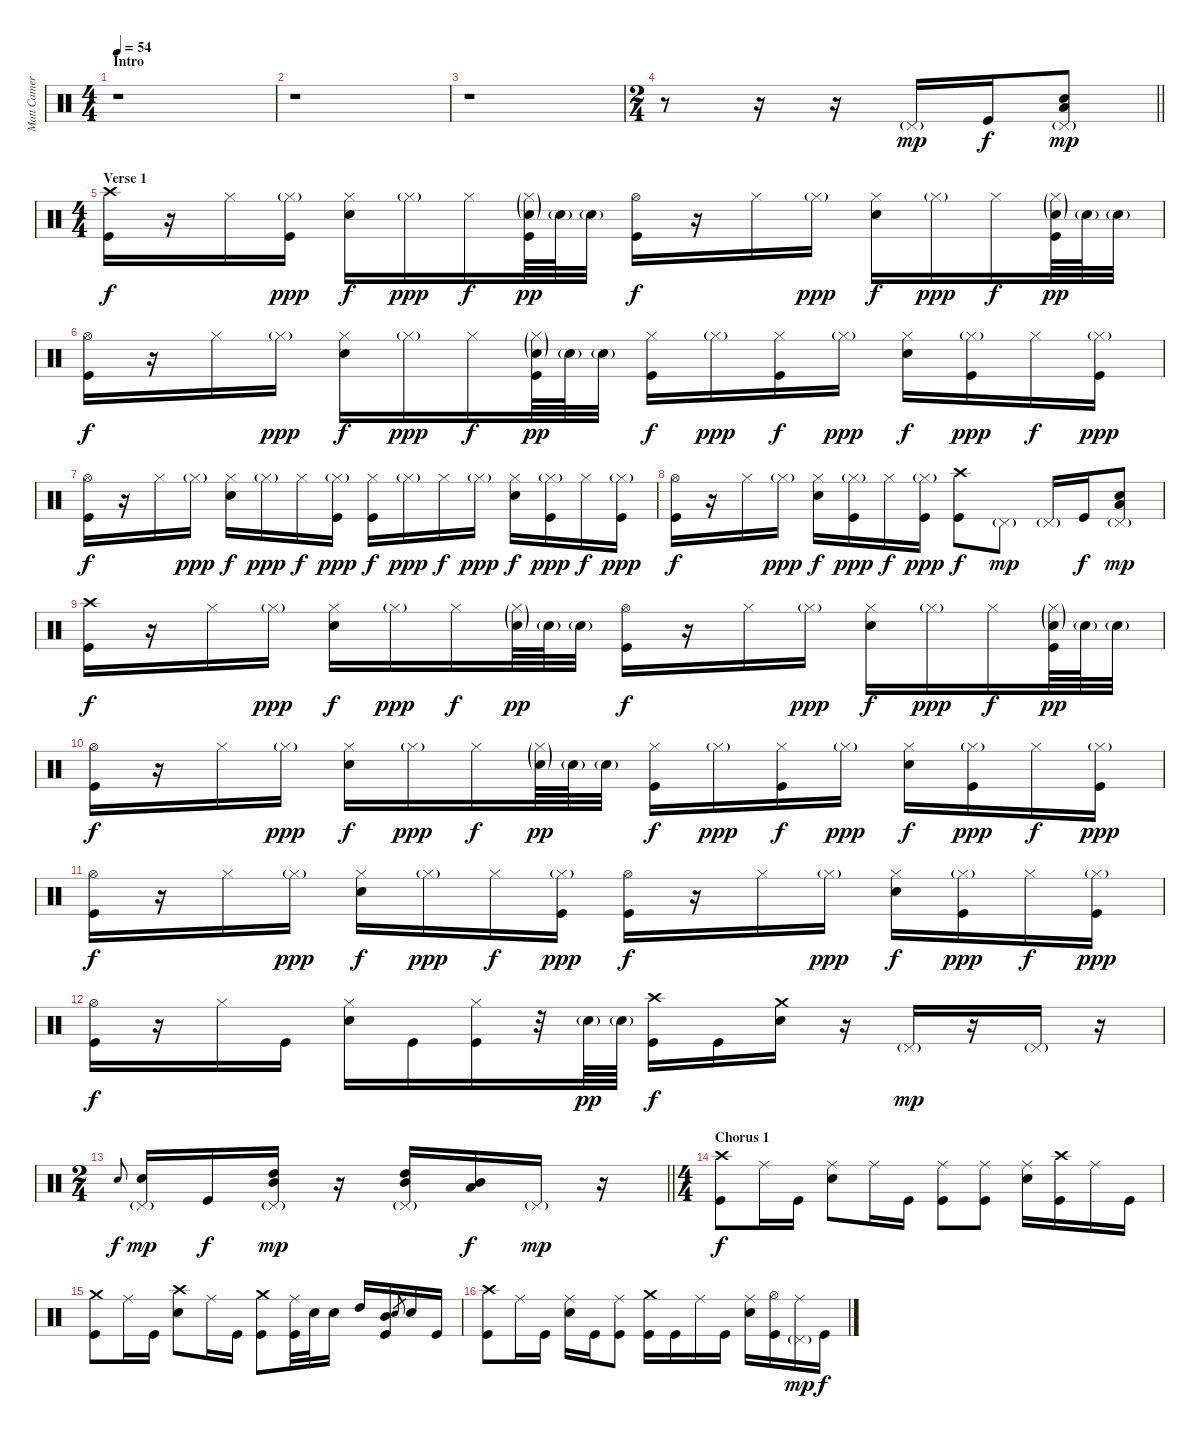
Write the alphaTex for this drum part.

\track ("Matt Cameron" "Matt Camer") {instrument percussion}
\staff {score}
\articulation defaults
\ts (4 4)
\section ("" "Intro")
\tempo 54
\clef neutral
\ks c
r.1{dy mp} |
r.1 |
r.1 |
\ts (2 4)
\barLineRight lightlight
r.8 r.16 r.16 "Pedal Hi-Hat (hit)"{g}.16 "Kick (hit)".16{dy f} ("Electric Snare (hit)" "Low Floor Tom (hit)" "Pedal Hi-Hat (hit)"{g}).8{dy mp} |
\ts (4 4)
\section ("" "Verse 1")
("Crash high (hit)" "Kick (hit)").16{dy f} r.16 "Hi-Hat (closed)".16 ("Hi-Hat (closed)"{g} "Kick (hit)").16{dy ppp} ("Hi-Hat (closed)" "Electric Snare (hit)").16{dy f} "Hi-Hat (closed)"{g}.16{dy ppp} "Hi-Hat (closed)".16{dy f} ("Hi-Hat (closed)"{g} "Electric Snare (hit)"{g} "Kick (hit)").64{dy pp} "Electric Snare (hit)"{g}.64 "Electric Snare (hit)"{g}.32 ("Hi-Hat (open)" "Kick (hit)").16{dy f} r.16 "Hi-Hat (closed)".16 "Hi-Hat (closed)"{g}.16{dy ppp} ("Hi-Hat (closed)" "Electric Snare (hit)").16{dy f} "Hi-Hat (closed)"{g}.16{dy ppp} "Hi-Hat (closed)".16{dy f} ("Hi-Hat (closed)"{g} "Electric Snare (hit)"{g} "Kick (hit)").64{dy pp} "Electric Snare (hit)"{g}.64 "Electric Snare (hit)"{g}.32 |
("Hi-Hat (open)" "Kick (hit)").16{dy f} r.16 "Hi-Hat (closed)".16 "Hi-Hat (closed)"{g}.16{dy ppp} ("Hi-Hat (closed)" "Electric Snare (hit)").16{dy f} "Hi-Hat (closed)"{g}.16{dy ppp} "Hi-Hat (closed)".16{dy f} ("Hi-Hat (closed)"{g} "Electric Snare (hit)"{g} "Kick (hit)").64{dy pp} "Electric Snare (hit)"{g}.64 "Electric Snare (hit)"{g}.32 ("Hi-Hat (closed)" "Kick (hit)").16{dy f} "Hi-Hat (closed)"{g}.16{dy ppp} ("Hi-Hat (closed)" "Kick (hit)").16{dy f} "Hi-Hat (closed)"{g}.16{dy ppp} ("Hi-Hat (closed)" "Electric Snare (hit)").16{dy f} ("Hi-Hat (closed)"{g} "Kick (hit)").16{dy ppp} "Hi-Hat (closed)".16{dy f} ("Hi-Hat (closed)"{g} "Kick (hit)").16{dy ppp} |
("Hi-Hat (open)" "Kick (hit)").16{dy f} r.16 "Hi-Hat (closed)".16 "Hi-Hat (closed)"{g}.16{dy ppp} ("Hi-Hat (closed)" "Electric Snare (hit)").16{dy f} "Hi-Hat (closed)"{g}.16{dy ppp} "Hi-Hat (closed)".16{dy f} ("Hi-Hat (closed)"{g} "Kick (hit)").16{dy ppp} ("Hi-Hat (closed)" "Kick (hit)").16{dy f} "Hi-Hat (closed)"{g}.16{dy ppp} "Hi-Hat (closed)".16{dy f} "Hi-Hat (closed)"{g}.16{dy ppp} ("Hi-Hat (closed)" "Electric Snare (hit)").16{dy f} ("Hi-Hat (closed)"{g} "Kick (hit)").16{dy ppp} "Hi-Hat (closed)".16{dy f} ("Hi-Hat (closed)"{g} "Kick (hit)").16{dy ppp} |
("Hi-Hat (open)" "Kick (hit)").16{dy f} r.16 "Hi-Hat (closed)".16 "Hi-Hat (closed)"{g}.16{dy ppp} ("Hi-Hat (closed)" "Electric Snare (hit)").16{dy f} ("Hi-Hat (closed)"{g} "Kick (hit)").16{dy ppp} "Hi-Hat (closed)".16{dy f} ("Hi-Hat (closed)"{g} "Kick (hit)").16{dy ppp} ("Crash high (hit)" "Kick (hit)").8{dy f} "Pedal Hi-Hat (hit)"{g}.8{dy mp} "Pedal Hi-Hat (hit)"{g}.16 "Kick (hit)".16{dy f} ("Electric Snare (hit)" "Low Floor Tom (hit)" "Pedal Hi-Hat (hit)"{g}).8{dy mp} |
("Crash high (hit)" "Kick (hit)").16{dy f} r.16 "Hi-Hat (closed)".16 "Hi-Hat (closed)"{g}.16{dy ppp} ("Hi-Hat (closed)" "Electric Snare (hit)").16{dy f} "Hi-Hat (closed)"{g}.16{dy ppp} "Hi-Hat (closed)".16{dy f} ("Hi-Hat (closed)"{g} "Electric Snare (hit)"{g}).64{dy pp} "Electric Snare (hit)"{g}.64 "Electric Snare (hit)"{g}.32 ("Hi-Hat (open)" "Kick (hit)").16{dy f} r.16 "Hi-Hat (closed)".16 "Hi-Hat (closed)"{g}.16{dy ppp} ("Hi-Hat (closed)" "Electric Snare (hit)").16{dy f} "Hi-Hat (closed)"{g}.16{dy ppp} "Hi-Hat (closed)".16{dy f} ("Hi-Hat (closed)"{g} "Electric Snare (hit)"{g} "Kick (hit)").64{dy pp} "Electric Snare (hit)"{g}.64 "Electric Snare (hit)"{g}.32 |
("Hi-Hat (open)" "Kick (hit)").16{dy f} r.16 "Hi-Hat (closed)".16 "Hi-Hat (closed)"{g}.16{dy ppp} ("Hi-Hat (closed)" "Electric Snare (hit)").16{dy f} "Hi-Hat (closed)"{g}.16{dy ppp} "Hi-Hat (closed)".16{dy f} ("Hi-Hat (closed)"{g} "Electric Snare (hit)"{g}).64{dy pp} "Electric Snare (hit)"{g}.64 "Electric Snare (hit)"{g}.32 ("Hi-Hat (closed)" "Kick (hit)").16{dy f} "Hi-Hat (closed)"{g}.16{dy ppp} ("Hi-Hat (closed)" "Kick (hit)").16{dy f} "Hi-Hat (closed)"{g}.16{dy ppp} ("Hi-Hat (closed)" "Electric Snare (hit)").16{dy f} ("Hi-Hat (closed)"{g} "Kick (hit)").16{dy ppp} "Hi-Hat (closed)".16{dy f} ("Hi-Hat (closed)"{g} "Kick (hit)").16{dy ppp} |
("Hi-Hat (open)" "Kick (hit)").16{dy f} r.16 "Hi-Hat (closed)".16 "Hi-Hat (closed)"{g}.16{dy ppp} ("Hi-Hat (closed)" "Electric Snare (hit)").16{dy f} "Hi-Hat (closed)"{g}.16{dy ppp} "Hi-Hat (closed)".16{dy f} ("Hi-Hat (closed)"{g} "Kick (hit)").16{dy ppp} ("Hi-Hat (open)" "Kick (hit)").16{dy f} r.16 "Hi-Hat (closed)".16 "Hi-Hat (closed)"{g}.16{dy ppp} ("Hi-Hat (closed)" "Electric Snare (hit)").16{dy f} ("Hi-Hat (closed)"{g} "Kick (hit)").16{dy ppp} "Hi-Hat (closed)".16{dy f} ("Hi-Hat (closed)"{g} "Kick (hit)").16{dy ppp} |
("Hi-Hat (open)" "Kick (hit)").16{dy f} r.16 "Hi-Hat (closed)".16 "Kick (hit)".16 ("Hi-Hat (closed)" "Electric Snare (hit)").16 "Kick (hit)".16 ("Hi-Hat (closed)" "Kick (hit)").16 r.32 "Electric Snare (hit)"{g}.64{dy pp} "Electric Snare (hit)"{g}.64 ("Crash high (hit)" "Kick (hit)").16{dy f} "Kick (hit)".16 ("Crash medium (hit)" "Electric Snare (hit)").16 r.16 "Pedal Hi-Hat (hit)"{g}.16{dy mp} r.16 "Pedal Hi-Hat (hit)"{g}.16 r.16 |
\ts (2 4)
\barLineRight lightlight "Electric Snare (hit)".8{gr onbeat dy f}
("Electric Snare (hit)" "Pedal Hi-Hat (hit)"{g}).16{dy mp} "Kick (hit)".16{dy f} ("High Tom (hit)" "Mid Tom (hit)" "Pedal Hi-Hat (hit)"{g}).16{dy mp} r.16 ("High Tom (hit)" "Mid Tom (hit)" "Pedal Hi-Hat (hit)"{g}).16 ("Mid Tom (hit)" "Low Floor Tom (hit)").16{dy f} "Pedal Hi-Hat (hit)"{g}.16{dy mp} r.16 |
\ts (4 4)
\section ("" "Chorus 1")
("Crash high (hit)" "Kick (hit)").8{dy f} "Ride (middle)".16 "Kick (hit)".16 ("Ride (middle)" "Electric Snare (hit)").8 "Ride (middle)".16 "Kick (hit)".16 ("Ride (middle)" "Kick (hit)").8 ("Ride (middle)" "Kick (hit)").8 ("Ride (middle)" "Electric Snare (hit)").16 ("Crash high (hit)" "Kick (hit)").16 "Ride (middle)".16 "Kick (hit)".16 |
("Crash medium (hit)" "Kick (hit)").8 "Ride (middle)".16 "Kick (hit)".16 ("Crash high (hit)" "Electric Snare (hit)").8 "Ride (middle)".16 "Kick (hit)".16 ("Crash medium (hit)" "Kick (hit)").8 ("Ride (middle)" "Kick (hit)").32 "Electric Snare (hit)".32 "Electric Snare (hit)".16 "High Tom (hit)".16 ("Mid Tom (hit)" "Kick (hit)").16 "Electric Snare (hit)".8{gr} "Electric Snare (hit)".16 "Kick (hit)".16 |
("Crash high (hit)" "Kick (hit)").8 "Ride (middle)".16 "Kick (hit)".16 ("Ride (middle)" "Electric Snare (hit)").16 "Kick (hit)".16 ("Ride (middle)" "Kick (hit)").8 ("Crash medium (hit)" "Kick (hit)").16 "Kick (hit)".16 "Ride (middle)".16 "Kick (hit)".16 ("Ride (middle)" "Electric Snare (hit)").16 ("Hi-Hat (open)" "Kick (hit)").16 ("Ride (middle)" "Pedal Hi-Hat (hit)"{g}).16{dy mp} "Kick (hit)".16{dy f}
